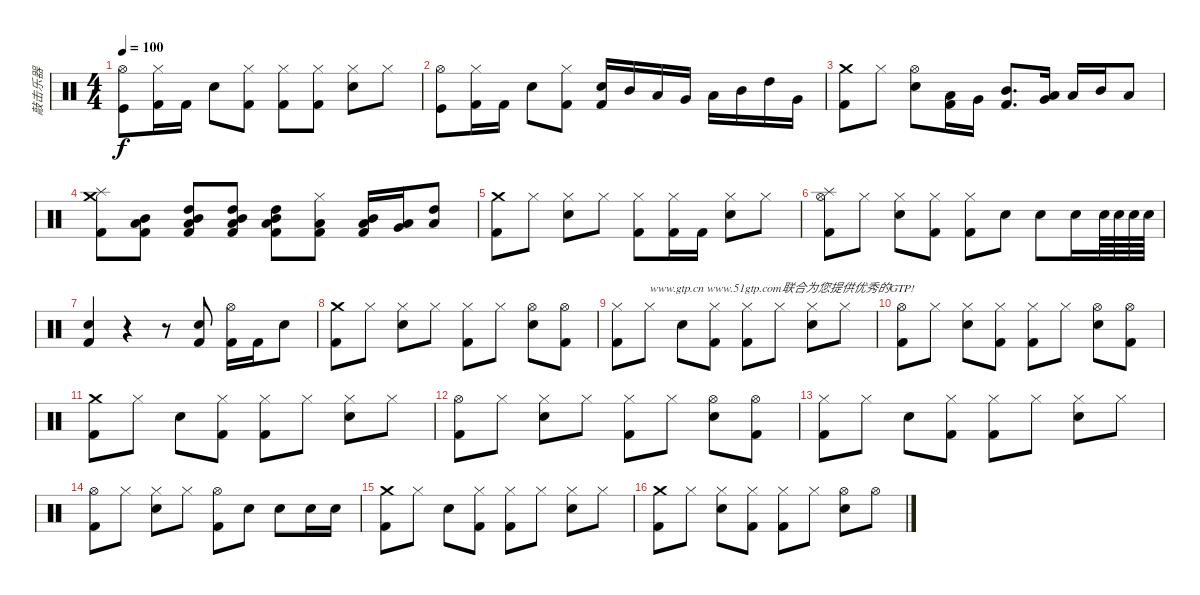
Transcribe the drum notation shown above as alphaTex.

\track ("敲击乐器" "敲击乐器") {instrument percussion}
\staff {score}
\articulation defaults
\ts (4 4)
\tempo 100
\clef neutral
\ks c
("Hi-Hat (open)" "Kick (hit)").8{dy f} ("Hi-Hat (closed)" "Kick (hit) 2").16 "Kick (hit) 2".16 "Electric Snare (hit)".8 ("Hi-Hat (closed)" "Kick (hit) 2").8 ("Hi-Hat (closed)" "Kick (hit) 2").8 ("Hi-Hat (closed)" "Kick (hit) 2").8 ("Hi-Hat (closed)" "Electric Snare (hit)").8 "Hi-Hat (closed)".8 |
("Hi-Hat (open)" "Kick (hit)").8 ("Hi-Hat (closed)" "Kick (hit) 2").16 "Kick (hit) 2".16 "Electric Snare (hit)".8 ("Hi-Hat (closed)" "Kick (hit) 2").8 ("Electric Snare (hit)" "Kick (hit) 2").16 "Mid Tom (hit)".16 "Low Tom (hit)".16 "Very Low Tom (hit)".16 "Low Tom (hit)".16 "Mid Tom (hit)".16 "High Tom (hit)".16 "Very Low Tom (hit)".16 |
("Crash medium (hit)" "Kick (hit) 2").8 "Hi-Hat (closed)".8 ("Hi-Hat (open)" "Electric Snare (hit)").8 ("Low Tom (hit)" "Kick (hit) 2").16 "Very Low Tom (hit)".16 ("Mid Tom (hit)" "Kick (hit) 2").8{d} ("Very Low Tom (hit)" "Low Tom (hit)").16 "Low Tom (hit)".16 "Mid Tom (hit)".16 "Low Floor Tom (hit)".8 |
("Splash (hit)" "Crash medium (hit)" "Kick (hit) 2").8 ("Mid Tom (hit)" "Low Tom (hit)" "Kick (hit) 2").8 ("Mid Tom (hit)" "High Tom (hit)" "Low Tom (hit)" "Kick (hit) 2").8 ("Mid Tom (hit)" "High Tom (hit)" "Low Tom (hit)" "Kick (hit) 2").8 ("Mid Tom (hit)" "High Tom (hit)" "Low Tom (hit)" "Kick (hit) 2").8 ("Hi-Hat (closed)" "Low Tom (hit)" "Kick (hit) 2").8 ("Mid Tom (hit)" "Low Tom (hit)" "Kick (hit) 2").16 ("Low Tom (hit)" "Very Low Tom (hit)").16 ("High Tom (hit)" "Low Floor Tom (hit)").8 |
("Crash medium (hit)" "Kick (hit) 2").8 "Hi-Hat (closed)".8 ("Hi-Hat (closed)" "Electric Snare (hit)").8 "Hi-Hat (closed)".8 ("Hi-Hat (closed)" "Kick (hit) 2").8 ("Hi-Hat (closed)" "Kick (hit) 2").16 "Kick (hit) 2".16 ("Hi-Hat (closed)" "Electric Snare (hit)").8 "Hi-Hat (closed)".8 |
("Hi-Hat (open)" "Splash (hit)" "Kick (hit) 2").8 "Hi-Hat (closed)".8 ("Hi-Hat (closed)" "Electric Snare (hit)").8 ("Hi-Hat (closed)" "Kick (hit) 2").8 ("Hi-Hat (closed)" "Kick (hit) 2").8 "Electric Snare (hit)".8 "Electric Snare (hit)".8 "Electric Snare (hit)".16 "Electric Snare (hit)".64 "Electric Snare (hit)".64 "Electric Snare (hit)".64 "Electric Snare (hit)".64 |
("Electric Snare (hit)" "Kick (hit) 2").4 r.4 r.8 ("Electric Snare (hit)" "Kick (hit) 2").8 ("Hi-Hat (open)" "Kick (hit) 2").16 "Kick (hit) 2".16 "Electric Snare (hit)".8 |
("Crash medium (hit)" "Kick (hit) 2").8 "Hi-Hat (closed)".8 ("Hi-Hat (closed)" "Electric Snare (hit)").8 "Hi-Hat (closed)".8 ("Hi-Hat (closed)" "Kick (hit) 2").8 "Hi-Hat (closed)".8 ("Hi-Hat (open)" "Electric Snare (hit)").8 ("Hi-Hat (open)" "Kick (hit) 2").8 |
("Hi-Hat (closed)" "Kick (hit) 2").8 "Hi-Hat (closed)".8{txt "www.gtp.cn www.51gtp.com联合为您提供优秀的GTP!"} "Electric Snare (hit)".8 ("Hi-Hat (closed)" "Kick (hit) 2").8 ("Hi-Hat (closed)" "Kick (hit) 2").8 "Hi-Hat (closed)".8 ("Hi-Hat (closed)" "Electric Snare (hit)").8 "Hi-Hat (closed)".8 |
("Hi-Hat (open)" "Kick (hit) 2").8 "Hi-Hat (closed)".8 ("Hi-Hat (closed)" "Electric Snare (hit)").8 ("Hi-Hat (closed)" "Kick (hit) 2").8 ("Hi-Hat (closed)" "Kick (hit) 2").8 "Hi-Hat (closed)".8 ("Hi-Hat (open)" "Electric Snare (hit)").8 ("Hi-Hat (open)" "Kick (hit) 2").8 |
("Crash medium (hit)" "Kick (hit) 2").8 "Hi-Hat (closed)".8 "Electric Snare (hit)".8 ("Hi-Hat (closed)" "Kick (hit) 2").8 ("Hi-Hat (closed)" "Kick (hit) 2").8 "Hi-Hat (closed)".8 ("Hi-Hat (closed)" "Electric Snare (hit)").8 "Hi-Hat (closed)".8 |
("Hi-Hat (open)" "Kick (hit) 2").8 "Hi-Hat (closed)".8 ("Hi-Hat (closed)" "Electric Snare (hit)").8 "Hi-Hat (closed)".8 ("Hi-Hat (closed)" "Kick (hit) 2").8 "Hi-Hat (closed)".8 ("Hi-Hat (open)" "Electric Snare (hit)").8 ("Hi-Hat (open)" "Kick (hit) 2").8 |
("Hi-Hat (closed)" "Kick (hit) 2").8 "Hi-Hat (closed)".8 "Electric Snare (hit)".8 ("Hi-Hat (closed)" "Kick (hit) 2").8 ("Hi-Hat (closed)" "Kick (hit) 2").8 "Hi-Hat (closed)".8 ("Hi-Hat (closed)" "Electric Snare (hit)").8 "Hi-Hat (closed)".8 |
("Hi-Hat (open)" "Kick (hit) 2").8 "Hi-Hat (closed)".8 ("Hi-Hat (closed)" "Electric Snare (hit)").8 "Hi-Hat (closed)".8 ("Hi-Hat (open)" "Kick (hit) 2").8 "Electric Snare (hit)".8 "Electric Snare (hit)".8 "Electric Snare (hit)".16 "Electric Snare (hit)".16 |
("Crash medium (hit)" "Kick (hit) 2").8 "Hi-Hat (closed)".8 "Electric Snare (hit)".8 ("Hi-Hat (closed)" "Kick (hit) 2").8 ("Hi-Hat (closed)" "Kick (hit) 2").8 "Hi-Hat (closed)".8 ("Hi-Hat (closed)" "Electric Snare (hit)").8 "Hi-Hat (closed)".8 |
("Crash medium (hit)" "Kick (hit) 2").8 "Hi-Hat (closed)".8 ("Hi-Hat (closed)" "Electric Snare (hit)").8 ("Hi-Hat (closed)" "Kick (hit) 2").8 ("Hi-Hat (closed)" "Kick (hit) 2").8 "Hi-Hat (closed)".8 ("Hi-Hat (open)" "Electric Snare (hit)").8 "Hi-Hat (open)".8
